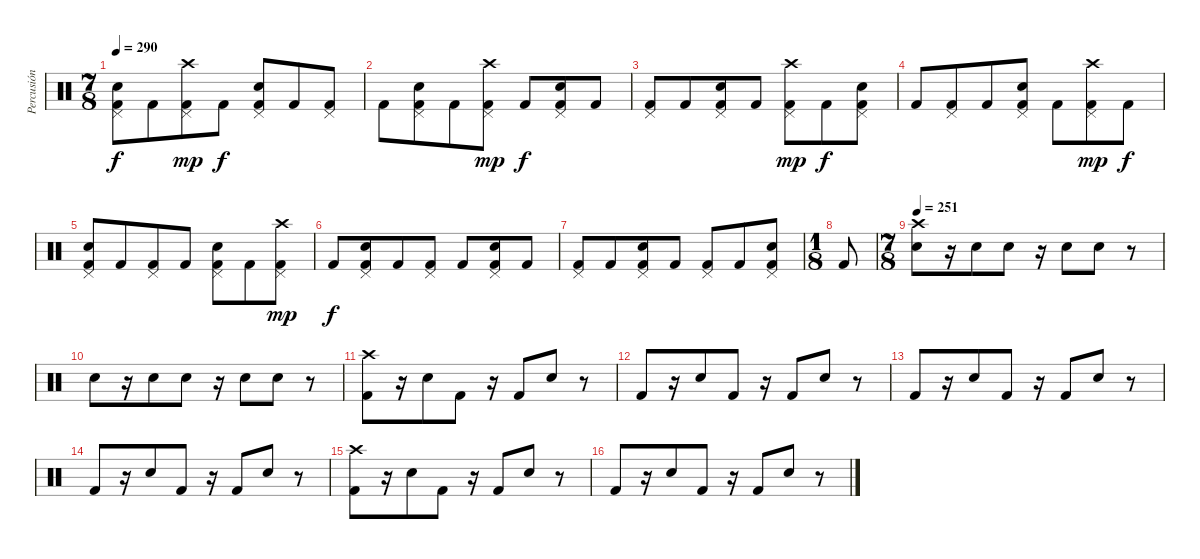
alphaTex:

\track ("Percusión" "Percusión") {instrument percussion}
\staff {score}
\articulation defaults
\ts (7 8)
\tempo 290
\clef neutral
\ks c
("Pedal Hi-Hat (hit)" "Snare (hit) 2" "Kick (hit) 2").8{dy f} "Kick (hit) 2".8 ("Crash high (hit)" "Pedal Hi-Hat (hit)" "Kick (hit) 2").8{dy mp} "Kick (hit) 2".8{dy f} ("Pedal Hi-Hat (hit)" "Snare (hit) 2" "Kick (hit) 2").8 "Kick (hit) 2".8 ("Pedal Hi-Hat (hit)" "Kick (hit) 2").8 |
"Kick (hit) 2".8 ("Pedal Hi-Hat (hit)" "Snare (hit) 2" "Kick (hit) 2").8 "Kick (hit) 2".8 ("Crash high (hit)" "Pedal Hi-Hat (hit)" "Kick (hit) 2").8{dy mp} "Kick (hit) 2".8{dy f} ("Pedal Hi-Hat (hit)" "Snare (hit) 2" "Kick (hit) 2").8 "Kick (hit) 2".8 |
("Pedal Hi-Hat (hit)" "Kick (hit) 2").8 "Kick (hit) 2".8 ("Pedal Hi-Hat (hit)" "Snare (hit) 2" "Kick (hit) 2").8 "Kick (hit) 2".8 ("Crash high (hit)" "Pedal Hi-Hat (hit)" "Kick (hit) 2").8{dy mp} "Kick (hit) 2".8{dy f} ("Pedal Hi-Hat (hit)" "Snare (hit) 2" "Kick (hit) 2").8 |
"Kick (hit) 2".8 ("Pedal Hi-Hat (hit)" "Kick (hit) 2").8 "Kick (hit) 2".8 ("Pedal Hi-Hat (hit)" "Snare (hit) 2" "Kick (hit) 2").8 "Kick (hit) 2".8 ("Crash high (hit)" "Pedal Hi-Hat (hit)" "Kick (hit) 2").8{dy mp} "Kick (hit) 2".8{dy f} |
("Pedal Hi-Hat (hit)" "Snare (hit) 2" "Kick (hit) 2").8 "Kick (hit) 2".8 ("Pedal Hi-Hat (hit)" "Kick (hit) 2").8 "Kick (hit) 2".8 ("Pedal Hi-Hat (hit)" "Snare (hit) 2" "Kick (hit) 2").8 "Kick (hit) 2".8 ("Crash high (hit)" "Pedal Hi-Hat (hit)" "Kick (hit) 2").8{dy mp} |
"Kick (hit) 2".8{dy f} ("Pedal Hi-Hat (hit)" "Snare (hit) 2" "Kick (hit) 2").8 "Kick (hit) 2".8 ("Pedal Hi-Hat (hit)" "Kick (hit) 2").8 "Kick (hit) 2".8 ("Pedal Hi-Hat (hit)" "Snare (hit) 2" "Kick (hit) 2").8 "Kick (hit) 2".8 |
("Pedal Hi-Hat (hit)" "Kick (hit) 2").8 "Kick (hit) 2".8 ("Pedal Hi-Hat (hit)" "Snare (hit) 2" "Kick (hit) 2").8 "Kick (hit) 2".8 ("Pedal Hi-Hat (hit)" "Kick (hit) 2").8 "Kick (hit) 2".8 ("Pedal Hi-Hat (hit)" "Snare (hit) 2" "Kick (hit) 2").8 |
\ts (1 8)
"Kick (hit) 2".8 |
\ts (7 8)
\tempo 251
("Snare (hit) 2" "Crash high (hit)").8 r.16 "Snare (hit) 2".8 "Snare (hit) 2".8 r.16 "Snare (hit) 2".8 "Snare (hit) 2".8 r.8 |
"Snare (hit) 2".8 r.16 "Snare (hit) 2".8 "Snare (hit) 2".8 r.16 "Snare (hit) 2".8 "Snare (hit) 2".8 r.8 |
("Crash high (hit)" "Kick (hit) 2").8 r.16 "Snare (hit) 2".8 "Kick (hit) 2".8 r.16 "Kick (hit) 2".8 "Snare (hit) 2".8 r.8 |
"Kick (hit) 2".8 r.16 "Snare (hit) 2".8 "Kick (hit) 2".8 r.16 "Kick (hit) 2".8 "Snare (hit) 2".8 r.8 |
"Kick (hit) 2".8 r.16 "Snare (hit) 2".8 "Kick (hit) 2".8 r.16 "Kick (hit) 2".8 "Snare (hit) 2".8 r.8 |
"Kick (hit) 2".8 r.16 "Snare (hit) 2".8 "Kick (hit) 2".8 r.16 "Kick (hit) 2".8 "Snare (hit) 2".8 r.8 |
("Crash high (hit)" "Kick (hit) 2").8 r.16 "Snare (hit) 2".8 "Kick (hit) 2".8 r.16 "Kick (hit) 2".8 "Snare (hit) 2".8 r.8 |
"Kick (hit) 2".8 r.16 "Snare (hit) 2".8 "Kick (hit) 2".8 r.16 "Kick (hit) 2".8 "Snare (hit) 2".8 r.8
